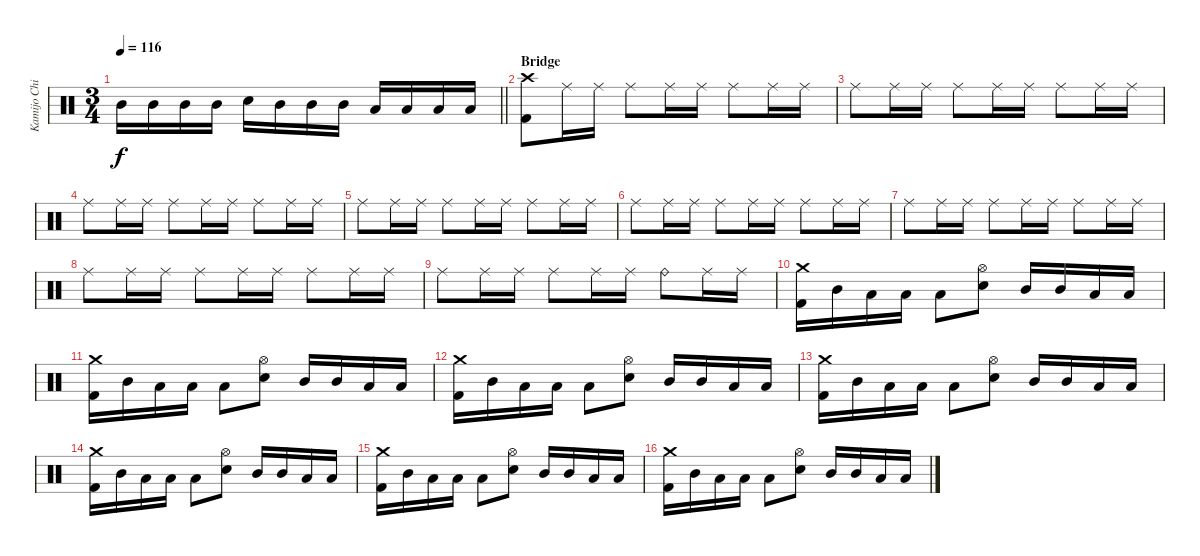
\track ("Kamijo Chihiro" "Kamijo Chi") {instrument percussion}
\staff {score}
\articulation defaults
\ts (3 4)
\tempo 116
\clef neutral
\barLineRight lightlight
\ks c "Mid Tom (hit)".16{dy f} "Mid Tom (hit)".16 "Mid Tom (hit)".16 "Mid Tom (hit)".16 "Snare (hit) 2".16 "Mid Tom (hit)".16 "Mid Tom (hit)".16 "Mid Tom (hit)".16 "Low Tom (hit)".16 "Low Tom (hit)".16 "Low Floor Tom (hit)".16 "Low Floor Tom (hit)".16
|
\section ("" "Bridge")
("Crash high (hit)" "Kick (hit) 2").8 "Ride (middle)".16 "Ride (middle)".16 "Ride (middle)".8 "Ride (middle)".16 "Ride (middle)".16 "Ride (middle)".8 "Ride (middle)".16 "Ride (middle)".16 |
"Ride (middle)".8 "Ride (middle)".16 "Ride (middle)".16 "Ride (middle)".8 "Ride (middle)".16 "Ride (middle)".16 "Ride (middle)".8 "Ride (middle)".16 "Ride (middle)".16 |
"Ride (middle)".8 "Ride (middle)".16 "Ride (middle)".16 "Ride (middle)".8 "Ride (middle)".16 "Ride (middle)".16 "Ride (middle)".8 "Ride (middle)".16 "Ride (middle)".16 |
"Ride (middle)".8 "Ride (middle)".16 "Ride (middle)".16 "Ride (middle)".8 "Ride (middle)".16 "Ride (middle)".16 "Ride (middle)".8 "Ride (middle)".16 "Ride (middle)".16 |
"Ride (middle)".8 "Ride (middle)".16 "Ride (middle)".16 "Ride (middle)".8 "Ride (middle)".16 "Ride (middle)".16 "Ride (middle)".8 "Ride (middle)".16 "Ride (middle)".16 |
"Ride (middle)".8 "Ride (middle)".16 "Ride (middle)".16 "Ride (middle)".8 "Ride (middle)".16 "Ride (middle)".16 "Ride (middle)".8 "Ride (middle)".16 "Ride (middle)".16 |
"Ride (middle)".8 "Ride (middle)".16 "Ride (middle)".16 "Ride (middle)".8 "Ride (middle)".16 "Ride (middle)".16 "Ride (middle)".8 "Ride (middle)".16 "Ride (middle)".16 |
"Ride (middle)".8 "Ride (middle)".16 "Ride (middle)".16 "Ride (middle)".8 "Ride (middle)".16 "Ride (middle)".16 "Ride (bell)".8 "Ride (middle)".16 "Ride (middle)".16 |
("Crash medium (hit)" "Kick (hit) 2").16 "Mid Tom (hit)".16 "Low Tom (hit)".16 "Low Tom (hit)".16 "Low Floor Tom (hit)".8 ("Hi-Hat (open)" "Snare (hit) 2").8 "Mid Tom (hit)".16 "Mid Tom (hit)".16 "Low Tom (hit)".16 "Low Tom (hit)".16 |
("Crash medium (hit)" "Kick (hit) 2").16 "Mid Tom (hit)".16 "Low Tom (hit)".16 "Low Tom (hit)".16 "Low Floor Tom (hit)".8 ("Hi-Hat (open)" "Snare (hit) 2").8 "Mid Tom (hit)".16 "Mid Tom (hit)".16 "Low Tom (hit)".16 "Low Tom (hit)".16 |
("Crash medium (hit)" "Kick (hit) 2").16 "Mid Tom (hit)".16 "Low Tom (hit)".16 "Low Tom (hit)".16 "Low Floor Tom (hit)".8 ("Hi-Hat (open)" "Snare (hit) 2").8 "Mid Tom (hit)".16 "Mid Tom (hit)".16 "Low Tom (hit)".16 "Low Tom (hit)".16 |
("Crash medium (hit)" "Kick (hit) 2").16 "Mid Tom (hit)".16 "Low Tom (hit)".16 "Low Tom (hit)".16 "Low Floor Tom (hit)".8 ("Hi-Hat (open)" "Snare (hit) 2").8 "Mid Tom (hit)".16 "Mid Tom (hit)".16 "Low Tom (hit)".16 "Low Tom (hit)".16 |
("Crash medium (hit)" "Kick (hit) 2").16 "Mid Tom (hit)".16 "Low Tom (hit)".16 "Low Tom (hit)".16 "Low Floor Tom (hit)".8 ("Hi-Hat (open)" "Snare (hit) 2").8 "Mid Tom (hit)".16 "Mid Tom (hit)".16 "Low Tom (hit)".16 "Low Tom (hit)".16 |
("Crash medium (hit)" "Kick (hit) 2").16 "Mid Tom (hit)".16 "Low Tom (hit)".16 "Low Tom (hit)".16 "Low Floor Tom (hit)".8 ("Hi-Hat (open)" "Snare (hit) 2").8 "Mid Tom (hit)".16 "Mid Tom (hit)".16 "Low Tom (hit)".16 "Low Tom (hit)".16 |
("Crash medium (hit)" "Kick (hit) 2").16 "Mid Tom (hit)".16 "Low Tom (hit)".16 "Low Tom (hit)".16 "Low Floor Tom (hit)".8 ("Hi-Hat (open)" "Snare (hit) 2").8 "Mid Tom (hit)".16 "Mid Tom (hit)".16 "Low Tom (hit)".16 "Low Tom (hit)".16
